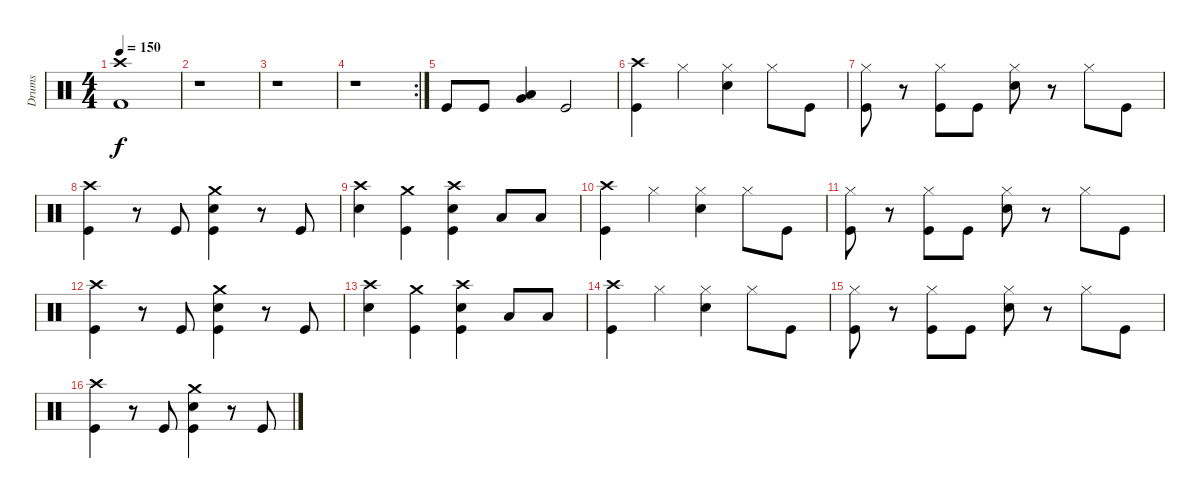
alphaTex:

\track ("Drums" "Drums") {instrument percussion}
\staff {score}
\articulation defaults
\ts (4 4)
\tempo 150
\clef neutral
\ks c
("Crash high (hit)" "Kick (hit) 2").1{dy f} |
r.1 |
r.1 |
\rc 2
r.1 |
"Kick (hit)".8 "Kick (hit)".8 ("Very Low Tom (hit)" "Low Tom (hit)").4 "Kick (hit)".2 |
("Crash high (hit)" "Kick (hit)").4 "Hi-Hat (closed)".4 ("Hi-Hat (closed)" "Snare (hit) 2").4 "Hi-Hat (closed)".8 "Kick (hit)".8 |
("Hi-Hat (closed)" "Kick (hit)").8 r.8 ("Hi-Hat (closed)" "Kick (hit)").8 "Kick (hit)".8 ("Hi-Hat (closed)" "Snare (hit) 2").8 r.8 "Hi-Hat (closed)".8 "Kick (hit)".8 |
("Crash high (hit)" "Kick (hit)").4 r.8 "Kick (hit)".8 ("Crash medium (hit)" "Snare (hit) 2" "Kick (hit)").4 r.8 "Kick (hit)".8 |
("Crash high (hit)" "Snare (hit) 2").4 ("Crash medium (hit)" "Kick (hit)").4 ("Crash high (hit)" "Snare (hit) 2" "Kick (hit)").4 "Low Tom (hit)".8 "Low Tom (hit)".8 |
("Crash high (hit)" "Kick (hit)").4 "Hi-Hat (closed)".4 ("Hi-Hat (closed)" "Snare (hit) 2").4 "Hi-Hat (closed)".8 "Kick (hit)".8 |
("Hi-Hat (closed)" "Kick (hit)").8 r.8 ("Hi-Hat (closed)" "Kick (hit)").8 "Kick (hit)".8 ("Hi-Hat (closed)" "Snare (hit) 2").8 r.8 "Hi-Hat (closed)".8 "Kick (hit)".8 |
("Crash high (hit)" "Kick (hit)").4 r.8 "Kick (hit)".8 ("Crash medium (hit)" "Snare (hit) 2" "Kick (hit)").4 r.8 "Kick (hit)".8 |
("Crash high (hit)" "Snare (hit) 2").4 ("Crash medium (hit)" "Kick (hit)").4 ("Crash high (hit)" "Snare (hit) 2" "Kick (hit)").4 "Low Tom (hit)".8 "Low Tom (hit)".8 |
("Crash high (hit)" "Kick (hit)").4 "Hi-Hat (closed)".4 ("Hi-Hat (closed)" "Snare (hit) 2").4 "Hi-Hat (closed)".8 "Kick (hit)".8 |
("Hi-Hat (closed)" "Kick (hit)").8 r.8 ("Hi-Hat (closed)" "Kick (hit)").8 "Kick (hit)".8 ("Hi-Hat (closed)" "Snare (hit) 2").8 r.8 "Hi-Hat (closed)".8 "Kick (hit)".8 |
("Crash high (hit)" "Kick (hit)").4 r.8 "Kick (hit)".8 ("Crash medium (hit)" "Snare (hit) 2" "Kick (hit)").4 r.8 "Kick (hit)".8
